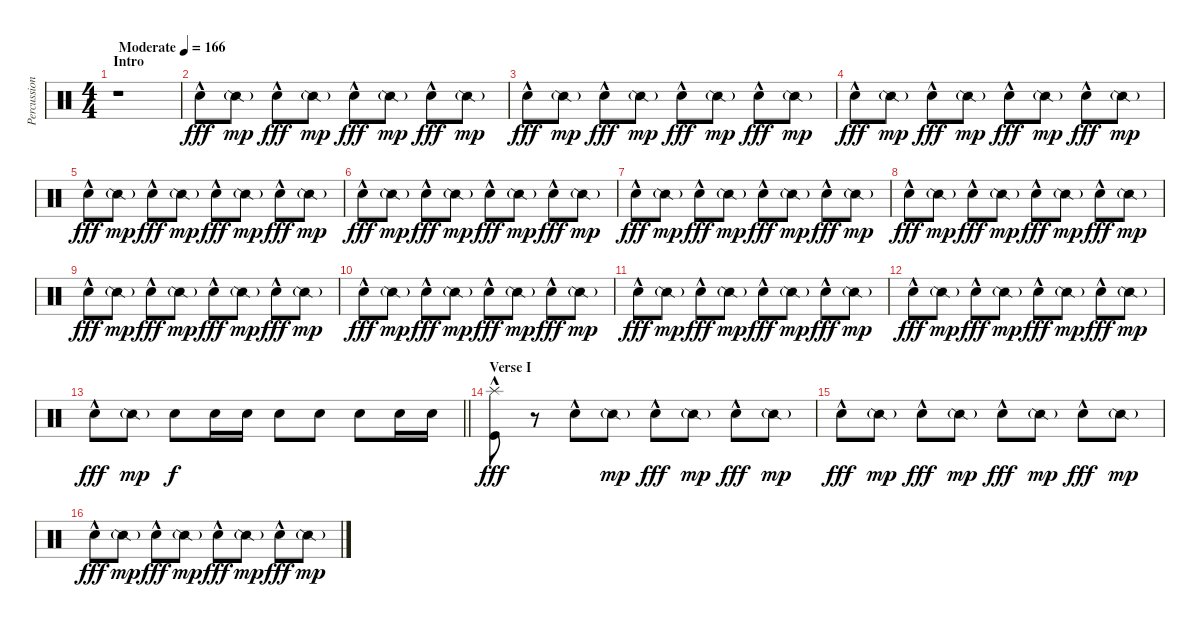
\track ("Percussion" "Percussion") {instrument percussion}
\staff {score}
\articulation defaults
\ts (4 4)
\section ("" "Intro")
\tempo (166 "Moderate")
\clef neutral
\ks c
r.1{dy fff} |
"Snare (hit) 2"{hac}.8 "Snare (side stick) 2"{g}.8{dy mp} "Snare (hit) 2"{hac}.8{dy fff} "Snare (side stick) 2"{g}.8{dy mp} "Snare (hit) 2"{hac}.8{dy fff} "Snare (side stick) 2"{g}.8{dy mp} "Snare (hit) 2"{hac}.8{dy fff} "Snare (side stick) 2"{g}.8{dy mp} |
"Snare (hit) 2"{hac}.8{dy fff} "Snare (side stick) 2"{g}.8{dy mp} "Snare (hit) 2"{hac}.8{dy fff} "Snare (side stick) 2"{g}.8{dy mp} "Snare (hit) 2"{hac}.8{dy fff} "Snare (side stick) 2"{g}.8{dy mp} "Snare (hit) 2"{hac}.8{dy fff} "Snare (side stick) 2"{g}.8{dy mp} |
"Snare (hit) 2"{hac}.8{dy fff} "Snare (side stick) 2"{g}.8{dy mp} "Snare (hit) 2"{hac}.8{dy fff} "Snare (side stick) 2"{g}.8{dy mp} "Snare (hit) 2"{hac}.8{dy fff} "Snare (side stick) 2"{g}.8{dy mp} "Snare (hit) 2"{hac}.8{dy fff} "Snare (side stick) 2"{g}.8{dy mp} |
"Snare (hit) 2"{hac}.8{dy fff} "Snare (side stick) 2"{g}.8{dy mp} "Snare (hit) 2"{hac}.8{dy fff} "Snare (side stick) 2"{g}.8{dy mp} "Snare (hit) 2"{hac}.8{dy fff} "Snare (side stick) 2"{g}.8{dy mp} "Snare (hit) 2"{hac}.8{dy fff} "Snare (side stick) 2"{g}.8{dy mp} |
"Snare (hit) 2"{hac}.8{dy fff} "Snare (side stick) 2"{g}.8{dy mp} "Snare (hit) 2"{hac}.8{dy fff} "Snare (side stick) 2"{g}.8{dy mp} "Snare (hit) 2"{hac}.8{dy fff} "Snare (side stick) 2"{g}.8{dy mp} "Snare (hit) 2"{hac}.8{dy fff} "Snare (side stick) 2"{g}.8{dy mp} |
"Snare (hit) 2"{hac}.8{dy fff} "Snare (side stick) 2"{g}.8{dy mp} "Snare (hit) 2"{hac}.8{dy fff} "Snare (side stick) 2"{g}.8{dy mp} "Snare (hit) 2"{hac}.8{dy fff} "Snare (side stick) 2"{g}.8{dy mp} "Snare (hit) 2"{hac}.8{dy fff} "Snare (side stick) 2"{g}.8{dy mp} |
"Snare (hit) 2"{hac}.8{dy fff} "Snare (side stick) 2"{g}.8{dy mp} "Snare (hit) 2"{hac}.8{dy fff} "Snare (side stick) 2"{g}.8{dy mp} "Snare (hit) 2"{hac}.8{dy fff} "Snare (side stick) 2"{g}.8{dy mp} "Snare (hit) 2"{hac}.8{dy fff} "Snare (side stick) 2"{g}.8{dy mp} |
"Snare (hit) 2"{hac}.8{dy fff} "Snare (side stick) 2"{g}.8{dy mp} "Snare (hit) 2"{hac}.8{dy fff} "Snare (side stick) 2"{g}.8{dy mp} "Snare (hit) 2"{hac}.8{dy fff} "Snare (side stick) 2"{g}.8{dy mp} "Snare (hit) 2"{hac}.8{dy fff} "Snare (side stick) 2"{g}.8{dy mp} |
"Snare (hit) 2"{hac}.8{dy fff} "Snare (side stick) 2"{g}.8{dy mp} "Snare (hit) 2"{hac}.8{dy fff} "Snare (side stick) 2"{g}.8{dy mp} "Snare (hit) 2"{hac}.8{dy fff} "Snare (side stick) 2"{g}.8{dy mp} "Snare (hit) 2"{hac}.8{dy fff} "Snare (side stick) 2"{g}.8{dy mp} |
"Snare (hit) 2"{hac}.8{dy fff} "Snare (side stick) 2"{g}.8{dy mp} "Snare (hit) 2"{hac}.8{dy fff} "Snare (side stick) 2"{g}.8{dy mp} "Snare (hit) 2"{hac}.8{dy fff} "Snare (side stick) 2"{g}.8{dy mp} "Snare (hit) 2"{hac}.8{dy fff} "Snare (side stick) 2"{g}.8{dy mp} |
"Snare (hit) 2"{hac}.8{dy fff} "Snare (side stick) 2"{g}.8{dy mp} "Snare (hit) 2"{hac}.8{dy fff} "Snare (side stick) 2"{g}.8{dy mp} "Snare (hit) 2"{hac}.8{dy fff} "Snare (side stick) 2"{g}.8{dy mp} "Snare (hit) 2"{hac}.8{dy fff} "Snare (side stick) 2"{g}.8{dy mp} |
\barLineRight lightlight "Snare (hit) 2"{hac}.8{dy fff} "Snare (side stick) 2"{g}.8{dy mp} "Snare (hit) 2".8{dy f} "Snare (hit) 2".16 "Snare (hit) 2".16 "Snare (hit) 2".8 "Snare (hit) 2".8 "Snare (hit) 2".8 "Snare (hit) 2".16 "Snare (hit) 2".16
|
\section ("" "Verse I")
("Splash (hit)" "Kick (hit)"{hac}).8{dy fff} r.8 "Snare (hit) 2"{hac}.8 "Snare (side stick) 2"{g}.8{dy mp} "Snare (hit) 2"{hac}.8{dy fff} "Snare (side stick) 2"{g}.8{dy mp} "Snare (hit) 2"{hac}.8{dy fff} "Snare (side stick) 2"{g}.8{dy mp} |
"Snare (hit) 2"{hac}.8{dy fff} "Snare (side stick) 2"{g}.8{dy mp} "Snare (hit) 2"{hac}.8{dy fff} "Snare (side stick) 2"{g}.8{dy mp} "Snare (hit) 2"{hac}.8{dy fff} "Snare (side stick) 2"{g}.8{dy mp} "Snare (hit) 2"{hac}.8{dy fff} "Snare (side stick) 2"{g}.8{dy mp} |
"Snare (hit) 2"{hac}.8{dy fff} "Snare (side stick) 2"{g}.8{dy mp} "Snare (hit) 2"{hac}.8{dy fff} "Snare (side stick) 2"{g}.8{dy mp} "Snare (hit) 2"{hac}.8{dy fff} "Snare (side stick) 2"{g}.8{dy mp} "Snare (hit) 2"{hac}.8{dy fff} "Snare (side stick) 2"{g}.8{dy mp}
